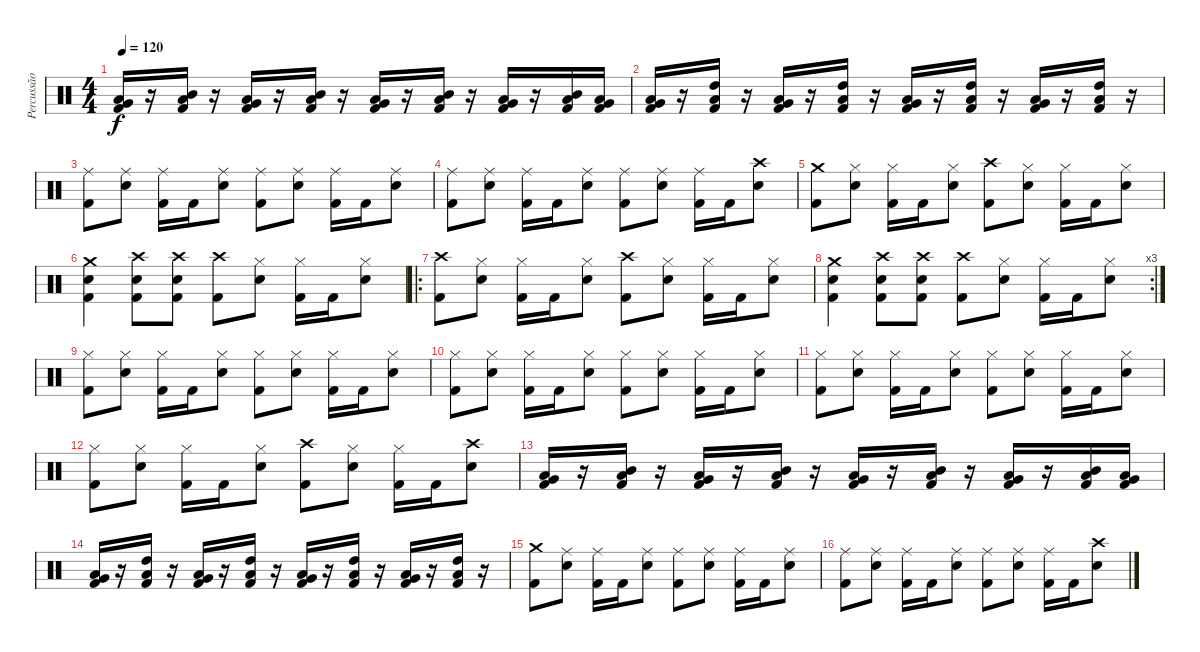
\track ("Percussão" "Percussão") {instrument percussion}
\staff {score}
\articulation defaults
\ts (4 4)
\tempo 120
\clef neutral
\ks c
("Low Tom (hit)" "Very Low Tom (hit)" "Kick (hit) 2").16{dy f} r.16 ("Mid Tom (hit)" "Low Tom (hit)" "Kick (hit) 2").16 r.16 ("Low Tom (hit)" "Very Low Tom (hit)" "Kick (hit) 2").16 r.16 ("Mid Tom (hit)" "Low Tom (hit)" "Kick (hit) 2").16 r.16 ("Low Tom (hit)" "Very Low Tom (hit)" "Kick (hit) 2").16 r.16 ("Mid Tom (hit)" "Low Tom (hit)" "Kick (hit) 2").16 r.16 ("Low Tom (hit)" "Very Low Tom (hit)" "Kick (hit) 2").16 r.16 ("Mid Tom (hit)" "Low Tom (hit)" "Kick (hit) 2").16 ("Low Tom (hit)" "Very Low Tom (hit)" "Kick (hit) 2").16 |
("Low Tom (hit)" "Very Low Tom (hit)" "Kick (hit) 2").16 r.16 ("High Tom (hit)" "Low Tom (hit)" "Kick (hit) 2").16 r.16 ("Low Tom (hit)" "Very Low Tom (hit)" "Kick (hit) 2").16 r.16 ("High Tom (hit)" "Low Tom (hit)" "Kick (hit) 2").16 r.16 ("Low Tom (hit)" "Very Low Tom (hit)" "Kick (hit) 2").16 r.16 ("High Tom (hit)" "Low Tom (hit)" "Kick (hit) 2").16 r.16 ("Low Tom (hit)" "Very Low Tom (hit)" "Kick (hit) 2").16 r.16 ("High Tom (hit)" "Low Tom (hit)" "Kick (hit) 2").16 r.16 |
("Ride (middle)" "Kick (hit) 2").8 ("Ride (middle)" "Snare (hit) 2").8 ("Ride (middle)" "Kick (hit) 2").16 "Kick (hit) 2".16 ("Ride (middle)" "Snare (hit) 2").8 ("Ride (middle)" "Kick (hit) 2").8 ("Ride (middle)" "Snare (hit) 2").8 ("Ride (middle)" "Kick (hit) 2").16 "Kick (hit) 2".16 ("Ride (middle)" "Snare (hit) 2").8 |
("Ride (middle)" "Kick (hit) 2").8 ("Ride (middle)" "Snare (hit) 2").8 ("Ride (middle)" "Kick (hit) 2").16 "Kick (hit) 2".16 ("Ride (middle)" "Snare (hit) 2").8 ("Ride (middle)" "Kick (hit) 2").8 ("Ride (middle)" "Snare (hit) 2").8 ("Ride (middle)" "Kick (hit) 2").16 "Kick (hit) 2".16 ("Crash high (hit)" "Snare (hit) 2").8 |
("Crash medium (hit)" "Kick (hit) 2").8 ("Hi-Hat (closed)" "Snare (hit) 2").8 ("Hi-Hat (closed)" "Kick (hit) 2").16 "Kick (hit) 2".16 ("Hi-Hat (closed)" "Snare (hit) 2").8 ("Crash high (hit)" "Kick (hit) 2").8 ("Hi-Hat (closed)" "Snare (hit) 2").8 ("Hi-Hat (closed)" "Kick (hit) 2").16 "Kick (hit) 2".16 ("Hi-Hat (closed)" "Snare (hit) 2").8 |
("Crash medium (hit)" "Snare (hit) 2" "Kick (hit) 2").4 ("Crash high (hit)" "Snare (hit) 2" "Kick (hit) 2").8 ("Crash high (hit)" "Snare (hit) 2" "Kick (hit) 2").8 ("Crash high (hit)" "Kick (hit) 2").8 ("Hi-Hat (closed)" "Snare (hit) 2").8 ("Hi-Hat (closed)" "Kick (hit) 2").16 "Kick (hit) 2".16 ("Hi-Hat (closed)" "Snare (hit) 2").8 |
\ro
("Crash high (hit)" "Kick (hit) 2").8 ("Hi-Hat (closed)" "Snare (hit) 2").8 ("Hi-Hat (closed)" "Kick (hit) 2").16 "Kick (hit) 2".16 ("Hi-Hat (closed)" "Snare (hit) 2").8 ("Crash high (hit)" "Kick (hit) 2").8 ("Hi-Hat (closed)" "Snare (hit) 2").8 ("Hi-Hat (closed)" "Kick (hit) 2").16 "Kick (hit) 2".16 ("Hi-Hat (closed)" "Snare (hit) 2").8 |
\rc 3
("Crash medium (hit)" "Snare (hit) 2" "Kick (hit) 2").4 ("Crash high (hit)" "Snare (hit) 2" "Kick (hit) 2").8 ("Crash high (hit)" "Snare (hit) 2" "Kick (hit) 2").8 ("Crash high (hit)" "Kick (hit) 2").8 ("Hi-Hat (closed)" "Snare (hit) 2").8 ("Hi-Hat (closed)" "Kick (hit) 2").16 "Kick (hit) 2".16 ("Hi-Hat (closed)" "Snare (hit) 2").8 |
("Hi-Hat (closed)" "Kick (hit) 2").8 ("Hi-Hat (closed)" "Snare (hit) 2").8 ("Hi-Hat (closed)" "Kick (hit) 2").16 "Kick (hit) 2".16 ("Hi-Hat (closed)" "Snare (hit) 2").8 ("Hi-Hat (closed)" "Kick (hit) 2").8 ("Hi-Hat (closed)" "Snare (hit) 2").8 ("Hi-Hat (closed)" "Kick (hit) 2").16 "Kick (hit) 2".16 ("Hi-Hat (closed)" "Snare (hit) 2").8 |
("Hi-Hat (closed)" "Kick (hit) 2").8 ("Hi-Hat (closed)" "Snare (hit) 2").8 ("Hi-Hat (closed)" "Kick (hit) 2").16 "Kick (hit) 2".16 ("Hi-Hat (closed)" "Snare (hit) 2").8 ("Hi-Hat (closed)" "Kick (hit) 2").8 ("Hi-Hat (closed)" "Snare (hit) 2").8 ("Hi-Hat (closed)" "Kick (hit) 2").16 "Kick (hit) 2".16 ("Hi-Hat (closed)" "Snare (hit) 2").8 |
("Hi-Hat (closed)" "Kick (hit) 2").8 ("Hi-Hat (closed)" "Snare (hit) 2").8 ("Hi-Hat (closed)" "Kick (hit) 2").16 "Kick (hit) 2".16 ("Hi-Hat (closed)" "Snare (hit) 2").8 ("Hi-Hat (closed)" "Kick (hit) 2").8 ("Hi-Hat (closed)" "Snare (hit) 2").8 ("Hi-Hat (closed)" "Kick (hit) 2").16 "Kick (hit) 2".16 ("Hi-Hat (closed)" "Snare (hit) 2").8 |
("Hi-Hat (closed)" "Kick (hit) 2").8 ("Hi-Hat (closed)" "Snare (hit) 2").8 ("Hi-Hat (closed)" "Kick (hit) 2").16 "Kick (hit) 2".16 ("Hi-Hat (closed)" "Snare (hit) 2").8 ("Crash high (hit)" "Kick (hit) 2").8 ("Hi-Hat (closed)" "Snare (hit) 2").8 ("Hi-Hat (closed)" "Kick (hit) 2").16 "Kick (hit) 2".16 ("Crash high (hit)" "Snare (hit) 2").8 |
("Low Tom (hit)" "Very Low Tom (hit)" "Kick (hit) 2").16 r.16 ("Mid Tom (hit)" "Low Tom (hit)" "Kick (hit) 2").16 r.16 ("Low Tom (hit)" "Very Low Tom (hit)" "Kick (hit) 2").16 r.16 ("Mid Tom (hit)" "Low Tom (hit)" "Kick (hit) 2").16 r.16 ("Low Tom (hit)" "Very Low Tom (hit)" "Kick (hit) 2").16 r.16 ("Mid Tom (hit)" "Low Tom (hit)" "Kick (hit) 2").16 r.16 ("Low Tom (hit)" "Very Low Tom (hit)" "Kick (hit) 2").16 r.16 ("Mid Tom (hit)" "Low Tom (hit)" "Kick (hit) 2").16 ("Low Tom (hit)" "Very Low Tom (hit)" "Kick (hit) 2").16 |
("Low Tom (hit)" "Very Low Tom (hit)" "Kick (hit) 2").16 r.16 ("High Tom (hit)" "Low Tom (hit)" "Kick (hit) 2").16 r.16 ("Low Tom (hit)" "Very Low Tom (hit)" "Kick (hit) 2").16 r.16 ("High Tom (hit)" "Low Tom (hit)" "Kick (hit) 2").16 r.16 ("Low Tom (hit)" "Very Low Tom (hit)" "Kick (hit) 2").16 r.16 ("High Tom (hit)" "Low Tom (hit)" "Kick (hit) 2").16 r.16 ("Low Tom (hit)" "Very Low Tom (hit)" "Kick (hit) 2").16 r.16 ("High Tom (hit)" "Low Tom (hit)" "Kick (hit) 2").16 r.16 |
("Crash medium (hit)" "Kick (hit) 2").8 ("Ride (middle)" "Snare (hit) 2").8 ("Ride (middle)" "Kick (hit) 2").16 "Kick (hit) 2".16 ("Ride (middle)" "Snare (hit) 2").8 ("Ride (middle)" "Kick (hit) 2").8 ("Ride (middle)" "Snare (hit) 2").8 ("Ride (middle)" "Kick (hit) 2").16 "Kick (hit) 2".16 ("Ride (middle)" "Snare (hit) 2").8 |
("Ride (middle)" "Kick (hit) 2").8 ("Ride (middle)" "Snare (hit) 2").8 ("Ride (middle)" "Kick (hit) 2").16 "Kick (hit) 2".16 ("Ride (middle)" "Snare (hit) 2").8 ("Ride (middle)" "Kick (hit) 2").8 ("Ride (middle)" "Snare (hit) 2").8 ("Ride (middle)" "Kick (hit) 2").16 "Kick (hit) 2".16 ("Crash high (hit)" "Snare (hit) 2").8
